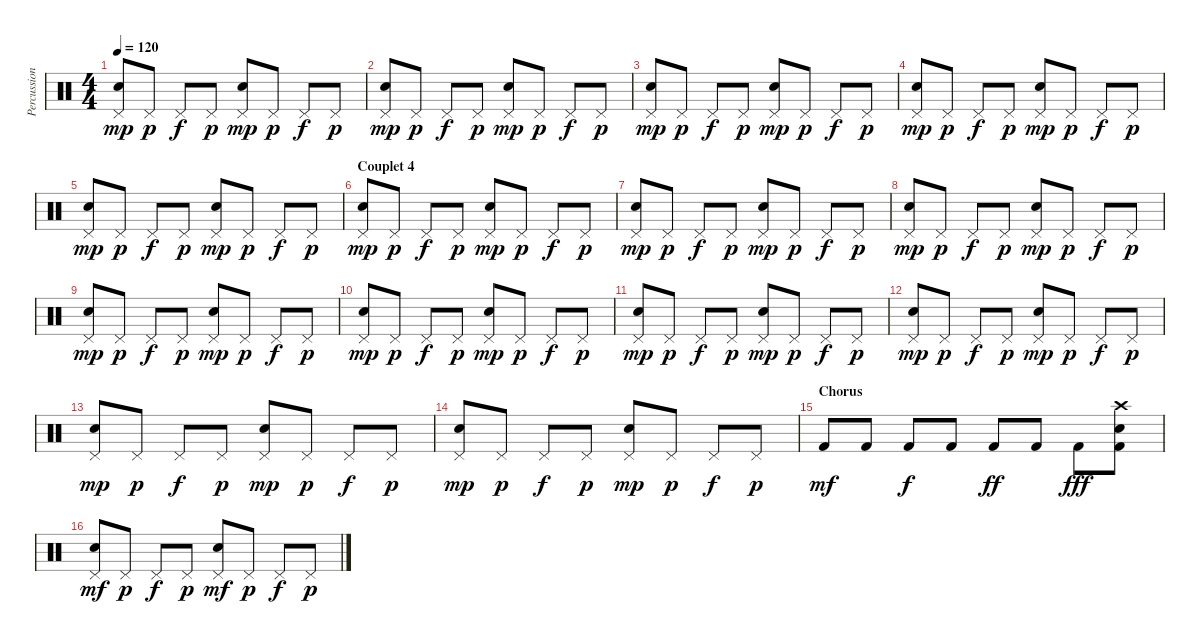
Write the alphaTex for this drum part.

\track ("Percussions" "Percussion") {instrument percussion}
\staff {score}
\articulation defaults
\ts (4 4)
\tempo 120
\clef neutral
\ks c
("Pedal Hi-Hat (hit)" "Hand Clap (hit)").8{dy mp} "Pedal Hi-Hat (hit)".8{dy p} "Pedal Hi-Hat (hit)".8{dy f} "Pedal Hi-Hat (hit)".8{dy p} ("Pedal Hi-Hat (hit)" "Hand Clap (hit)").8{dy mp} "Pedal Hi-Hat (hit)".8{dy p} "Pedal Hi-Hat (hit)".8{dy f} "Pedal Hi-Hat (hit)".8{dy p} |
("Pedal Hi-Hat (hit)" "Hand Clap (hit)").8{dy mp} "Pedal Hi-Hat (hit)".8{dy p} "Pedal Hi-Hat (hit)".8{dy f} "Pedal Hi-Hat (hit)".8{dy p} ("Pedal Hi-Hat (hit)" "Hand Clap (hit)").8{dy mp} "Pedal Hi-Hat (hit)".8{dy p} "Pedal Hi-Hat (hit)".8{dy f} "Pedal Hi-Hat (hit)".8{dy p} |
("Pedal Hi-Hat (hit)" "Hand Clap (hit)").8{dy mp} "Pedal Hi-Hat (hit)".8{dy p} "Pedal Hi-Hat (hit)".8{dy f} "Pedal Hi-Hat (hit)".8{dy p} ("Pedal Hi-Hat (hit)" "Hand Clap (hit)").8{dy mp} "Pedal Hi-Hat (hit)".8{dy p} "Pedal Hi-Hat (hit)".8{dy f} "Pedal Hi-Hat (hit)".8{dy p} |
("Pedal Hi-Hat (hit)" "Hand Clap (hit)").8{dy mp} "Pedal Hi-Hat (hit)".8{dy p} "Pedal Hi-Hat (hit)".8{dy f} "Pedal Hi-Hat (hit)".8{dy p} ("Pedal Hi-Hat (hit)" "Hand Clap (hit)").8{dy mp} "Pedal Hi-Hat (hit)".8{dy p} "Pedal Hi-Hat (hit)".8{dy f} "Pedal Hi-Hat (hit)".8{dy p} |
("Pedal Hi-Hat (hit)" "Hand Clap (hit)").8{dy mp} "Pedal Hi-Hat (hit)".8{dy p} "Pedal Hi-Hat (hit)".8{dy f} "Pedal Hi-Hat (hit)".8{dy p} ("Pedal Hi-Hat (hit)" "Hand Clap (hit)").8{dy mp} "Pedal Hi-Hat (hit)".8{dy p} "Pedal Hi-Hat (hit)".8{dy f} "Pedal Hi-Hat (hit)".8{dy p} |
\section ("" "Couplet 4")
("Pedal Hi-Hat (hit)" "Hand Clap (hit)").8{dy mp} "Pedal Hi-Hat (hit)".8{dy p} "Pedal Hi-Hat (hit)".8{dy f} "Pedal Hi-Hat (hit)".8{dy p} ("Pedal Hi-Hat (hit)" "Hand Clap (hit)").8{dy mp} "Pedal Hi-Hat (hit)".8{dy p} "Pedal Hi-Hat (hit)".8{dy f} "Pedal Hi-Hat (hit)".8{dy p} |
("Pedal Hi-Hat (hit)" "Hand Clap (hit)").8{dy mp} "Pedal Hi-Hat (hit)".8{dy p} "Pedal Hi-Hat (hit)".8{dy f} "Pedal Hi-Hat (hit)".8{dy p} ("Pedal Hi-Hat (hit)" "Hand Clap (hit)").8{dy mp} "Pedal Hi-Hat (hit)".8{dy p} "Pedal Hi-Hat (hit)".8{dy f} "Pedal Hi-Hat (hit)".8{dy p} |
("Pedal Hi-Hat (hit)" "Hand Clap (hit)").8{dy mp} "Pedal Hi-Hat (hit)".8{dy p} "Pedal Hi-Hat (hit)".8{dy f} "Pedal Hi-Hat (hit)".8{dy p} ("Pedal Hi-Hat (hit)" "Hand Clap (hit)").8{dy mp} "Pedal Hi-Hat (hit)".8{dy p} "Pedal Hi-Hat (hit)".8{dy f} "Pedal Hi-Hat (hit)".8{dy p} |
("Pedal Hi-Hat (hit)" "Hand Clap (hit)").8{dy mp} "Pedal Hi-Hat (hit)".8{dy p} "Pedal Hi-Hat (hit)".8{dy f} "Pedal Hi-Hat (hit)".8{dy p} ("Pedal Hi-Hat (hit)" "Hand Clap (hit)").8{dy mp} "Pedal Hi-Hat (hit)".8{dy p} "Pedal Hi-Hat (hit)".8{dy f} "Pedal Hi-Hat (hit)".8{dy p} |
("Pedal Hi-Hat (hit)" "Hand Clap (hit)").8{dy mp} "Pedal Hi-Hat (hit)".8{dy p} "Pedal Hi-Hat (hit)".8{dy f} "Pedal Hi-Hat (hit)".8{dy p} ("Pedal Hi-Hat (hit)" "Hand Clap (hit)").8{dy mp} "Pedal Hi-Hat (hit)".8{dy p} "Pedal Hi-Hat (hit)".8{dy f} "Pedal Hi-Hat (hit)".8{dy p} |
("Pedal Hi-Hat (hit)" "Hand Clap (hit)").8{dy mp} "Pedal Hi-Hat (hit)".8{dy p} "Pedal Hi-Hat (hit)".8{dy f} "Pedal Hi-Hat (hit)".8{dy p} ("Pedal Hi-Hat (hit)" "Hand Clap (hit)").8{dy mp} "Pedal Hi-Hat (hit)".8{dy p} "Pedal Hi-Hat (hit)".8{dy f} "Pedal Hi-Hat (hit)".8{dy p} |
("Pedal Hi-Hat (hit)" "Hand Clap (hit)").8{dy mp} "Pedal Hi-Hat (hit)".8{dy p} "Pedal Hi-Hat (hit)".8{dy f} "Pedal Hi-Hat (hit)".8{dy p} ("Pedal Hi-Hat (hit)" "Hand Clap (hit)").8{dy mp} "Pedal Hi-Hat (hit)".8{dy p} "Pedal Hi-Hat (hit)".8{dy f} "Pedal Hi-Hat (hit)".8{dy p} |
("Pedal Hi-Hat (hit)" "Hand Clap (hit)").8{dy mp} "Pedal Hi-Hat (hit)".8{dy p} "Pedal Hi-Hat (hit)".8{dy f} "Pedal Hi-Hat (hit)".8{dy p} ("Pedal Hi-Hat (hit)" "Hand Clap (hit)").8{dy mp} "Pedal Hi-Hat (hit)".8{dy p} "Pedal Hi-Hat (hit)".8{dy f} "Pedal Hi-Hat (hit)".8{dy p} |
("Pedal Hi-Hat (hit)" "Hand Clap (hit)").8{dy mp} "Pedal Hi-Hat (hit)".8{dy p} "Pedal Hi-Hat (hit)".8{dy f} "Pedal Hi-Hat (hit)".8{dy p} ("Pedal Hi-Hat (hit)" "Hand Clap (hit)").8{dy mp} "Pedal Hi-Hat (hit)".8{dy p} "Pedal Hi-Hat (hit)".8{dy f} "Pedal Hi-Hat (hit)".8{dy p} |
\section ("" "Chorus")
"Kick (hit) 2".8{dy mf} "Kick (hit) 2".8 "Kick (hit) 2".8{dy f} "Kick (hit) 2".8 "Kick (hit) 2".8{dy ff} "Kick (hit) 2".8 "Kick (hit) 2".8{dy fff} ("Kick (hit) 2" "Electric Snare (hit)" "Crash high (hit)").8 |
("Pedal Hi-Hat (hit)" "Hand Clap (hit)").8{dy mf} "Pedal Hi-Hat (hit)".8{dy p} "Pedal Hi-Hat (hit)".8{dy f} "Pedal Hi-Hat (hit)".8{dy p} ("Pedal Hi-Hat (hit)" "Hand Clap (hit)").8{dy mf} "Pedal Hi-Hat (hit)".8{dy p} "Pedal Hi-Hat (hit)".8{dy f} "Pedal Hi-Hat (hit)".8{dy p}
